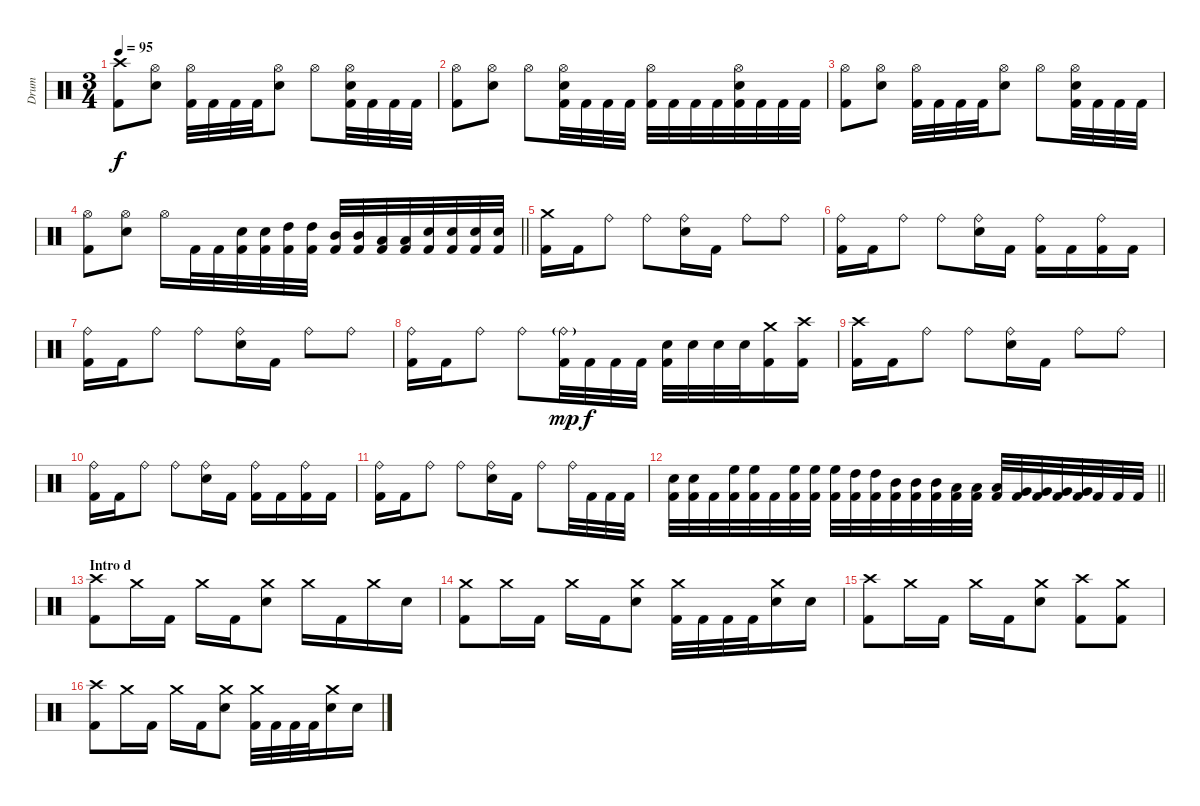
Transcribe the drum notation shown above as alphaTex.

\track ("Drum" "Drum") {instrument percussion}
\staff {score}
\articulation defaults
\ts (3 4)
\tempo 95
\clef neutral
\ks c
("Crash high (hit)" "Kick (hit) 2").8{dy f} ("Hi-Hat (open)" "Electric Snare (hit)").8 ("Hi-Hat (open)" "Kick (hit) 2").32 "Kick (hit) 2".32 "Kick (hit) 2".32 "Kick (hit) 2".32 ("Hi-Hat (open)" "Electric Snare (hit)").8 "Hi-Hat (open)".8 ("Hi-Hat (open)" "Electric Snare (hit)" "Kick (hit) 2").32 "Kick (hit) 2".32 "Kick (hit) 2".32 "Kick (hit) 2".32 |
("Hi-Hat (open)" "Kick (hit) 2").8 ("Hi-Hat (open)" "Electric Snare (hit)").8 "Hi-Hat (open)".8 ("Hi-Hat (open)" "Electric Snare (hit)" "Kick (hit) 2").32 "Kick (hit) 2".32 "Kick (hit) 2".32 "Kick (hit) 2".32 ("Hi-Hat (open)" "Kick (hit) 2").32 "Kick (hit) 2".32 "Kick (hit) 2".32 "Kick (hit) 2".32 ("Hi-Hat (open)" "Electric Snare (hit)" "Kick (hit) 2").32 "Kick (hit) 2".32 "Kick (hit) 2".32 "Kick (hit) 2".32 |
("Hi-Hat (open)" "Kick (hit) 2").8 ("Hi-Hat (open)" "Electric Snare (hit)").8 ("Hi-Hat (open)" "Kick (hit) 2").32 "Kick (hit) 2".32 "Kick (hit) 2".32 "Kick (hit) 2".32 ("Hi-Hat (open)" "Electric Snare (hit)").8 "Hi-Hat (open)".8 ("Hi-Hat (open)" "Electric Snare (hit)" "Kick (hit) 2").32 "Kick (hit) 2".32 "Kick (hit) 2".32 "Kick (hit) 2".32 |
\barLineRight lightlight
("Hi-Hat (open)" "Kick (hit) 2").8 ("Hi-Hat (open)" "Electric Snare (hit)").8 "Hi-Hat (open)".16 "Kick (hit) 2".32 "Kick (hit) 2".32 ("Electric Snare (hit)" "Kick (hit) 2").32 ("Electric Snare (hit)" "Kick (hit) 2").32 ("High Tom (hit)" "Kick (hit) 2").32 ("High Tom (hit)" "Kick (hit) 2").32 ("Mid Tom (hit)" "Kick (hit) 2").32 ("Mid Tom (hit)" "Kick (hit) 2").32 ("Low Tom (hit)" "Kick (hit) 2").32 ("Low Tom (hit)" "Kick (hit) 2").32 ("Electric Snare (hit)" "Kick (hit) 2").32 ("Electric Snare (hit)" "Kick (hit) 2").32 ("Electric Snare (hit)" "Kick (hit) 2").32 ("Electric Snare (hit)" "Kick (hit) 2").32 |
("Crash medium (hit)" "Kick (hit) 2").16 "Kick (hit) 2".16 "Ride (bell)".8 "Ride (bell)".8 ("Ride (bell)" "Electric Snare (hit)").16 "Kick (hit) 2".16 "Ride (bell)".8 "Ride (bell)".8 |
("Ride (bell)" "Kick (hit) 2").16 "Kick (hit) 2".16 "Ride (bell)".8 "Ride (bell)".8 ("Ride (bell)" "Electric Snare (hit)").16 "Kick (hit) 2".16 ("Ride (bell)" "Kick (hit) 2").16 "Kick (hit) 2".16 ("Ride (bell)" "Kick (hit) 2").16 "Kick (hit) 2".16 |
("Ride (bell)" "Kick (hit) 2").16 "Kick (hit) 2".16 "Ride (bell)".8 "Ride (bell)".8 ("Ride (bell)" "Electric Snare (hit)").16 "Kick (hit) 2".16 "Ride (bell)".8 "Ride (bell)".8 |
("Ride (bell)" "Kick (hit) 2").16 "Kick (hit) 2".16 "Ride (bell)".8 "Ride (bell)".8 ("Ride (bell)"{g} "Kick (hit) 2").32{dy mp} "Kick (hit) 2".32{dy f} "Kick (hit) 2".32 "Kick (hit) 2".32 ("Electric Snare (hit)" "Kick (hit) 2").32 "Electric Snare (hit)".32 "Electric Snare (hit)".32 "Electric Snare (hit)".32 ("Crash medium (hit)" "Kick (hit) 2").16 ("Crash high (hit)" "Kick (hit) 2").16 |
("Crash high (hit)" "Kick (hit) 2").16 "Kick (hit) 2".16 "Ride (bell)".8 "Ride (bell)".8 ("Ride (bell)" "Electric Snare (hit)").16 "Kick (hit) 2".16 "Ride (bell)".8 "Ride (bell)".8 |
("Ride (bell)" "Kick (hit) 2").16 "Kick (hit) 2".16 "Ride (bell)".8 "Ride (bell)".8 ("Ride (bell)" "Electric Snare (hit)").16 "Kick (hit) 2".16 ("Ride (bell)" "Kick (hit) 2").16 "Kick (hit) 2".16 ("Ride (bell)" "Kick (hit) 2").16 "Kick (hit) 2".16 |
("Ride (bell)" "Kick (hit) 2").16 "Kick (hit) 2".16 "Ride (bell)".8 "Ride (bell)".8 ("Ride (bell)" "Electric Snare (hit)").16 "Kick (hit) 2".16 "Ride (bell)".8 "Ride (bell)".32 "Kick (hit) 2".32 "Kick (hit) 2".32 "Kick (hit) 2".32 |
\barLineRight lightlight
("Electric Snare (hit)" "Kick (hit) 2").32 ("Electric Snare (hit)" "Kick (hit) 2").32 "Kick (hit) 2".32 ("High Floor Tom (hit)" "Kick (hit) 2").32 ("High Floor Tom (hit)" "Kick (hit) 2").32 "Kick (hit) 2".32 ("High Floor Tom (hit)" "Kick (hit) 2").32 ("High Floor Tom (hit)" "Kick (hit) 2").32 ("High Floor Tom (hit)" "Kick (hit) 2").32 ("High Tom (hit)" "Kick (hit) 2").32 ("High Tom (hit)" "Kick (hit) 2").32 ("Mid Tom (hit)" "Kick (hit) 2").32 ("Mid Tom (hit)" "Kick (hit) 2").32 ("Mid Tom (hit)" "Kick (hit) 2").32 ("Low Tom (hit)" "Kick (hit) 2").32 ("Low Tom (hit)" "Kick (hit) 2").32 ("Low Tom (hit)" "Kick (hit) 2").32 ("Very Low Tom (hit)" "Kick (hit) 2").32 ("Very Low Tom (hit)" "Kick (hit) 2").32 ("Very Low Tom (hit)" "Kick (hit) 2").32 ("Very Low Tom (hit)" "Kick (hit) 2").32 "Kick (hit) 2".32 "Kick (hit) 2".32 "Kick (hit) 2".32 |
\section ("" "Intro d")
("Crash high (hit)" "Kick (hit) 2").8 "Crash medium (hit)".16 "Kick (hit) 2".16 "Crash medium (hit)".16 "Kick (hit) 2".16 ("Crash medium (hit)" "Electric Snare (hit)").8 "Crash medium (hit)".16 "Kick (hit) 2".16 "Crash medium (hit)".16 "Electric Snare (hit)".16 |
("Crash medium (hit)" "Kick (hit) 2").8 "Crash medium (hit)".16 "Kick (hit) 2".16 "Crash medium (hit)".16 "Kick (hit) 2".16 ("Crash medium (hit)" "Electric Snare (hit)").8 ("Crash medium (hit)" "Kick (hit) 2").32 "Kick (hit) 2".32 "Kick (hit) 2".32 "Kick (hit) 2".32 ("Crash medium (hit)" "Electric Snare (hit)").16 "Electric Snare (hit)".16 |
("Crash high (hit)" "Kick (hit) 2").8 "Crash medium (hit)".16 "Kick (hit) 2".16 "Crash medium (hit)".16 "Kick (hit) 2".16 ("Crash medium (hit)" "Electric Snare (hit)").8 ("Crash high (hit)" "Kick (hit) 2").8 ("Crash medium (hit)" "Kick (hit) 2").8 |
("Crash high (hit)" "Kick (hit) 2").8 "Crash medium (hit)".16 "Kick (hit) 2".16 "Crash medium (hit)".16 "Kick (hit) 2".16 ("Crash medium (hit)" "Electric Snare (hit)").8 ("Crash medium (hit)" "Kick (hit) 2").32 "Kick (hit) 2".32 "Kick (hit) 2".32 "Kick (hit) 2".32 ("Crash medium (hit)" "Electric Snare (hit)").16 "Electric Snare (hit)".16
